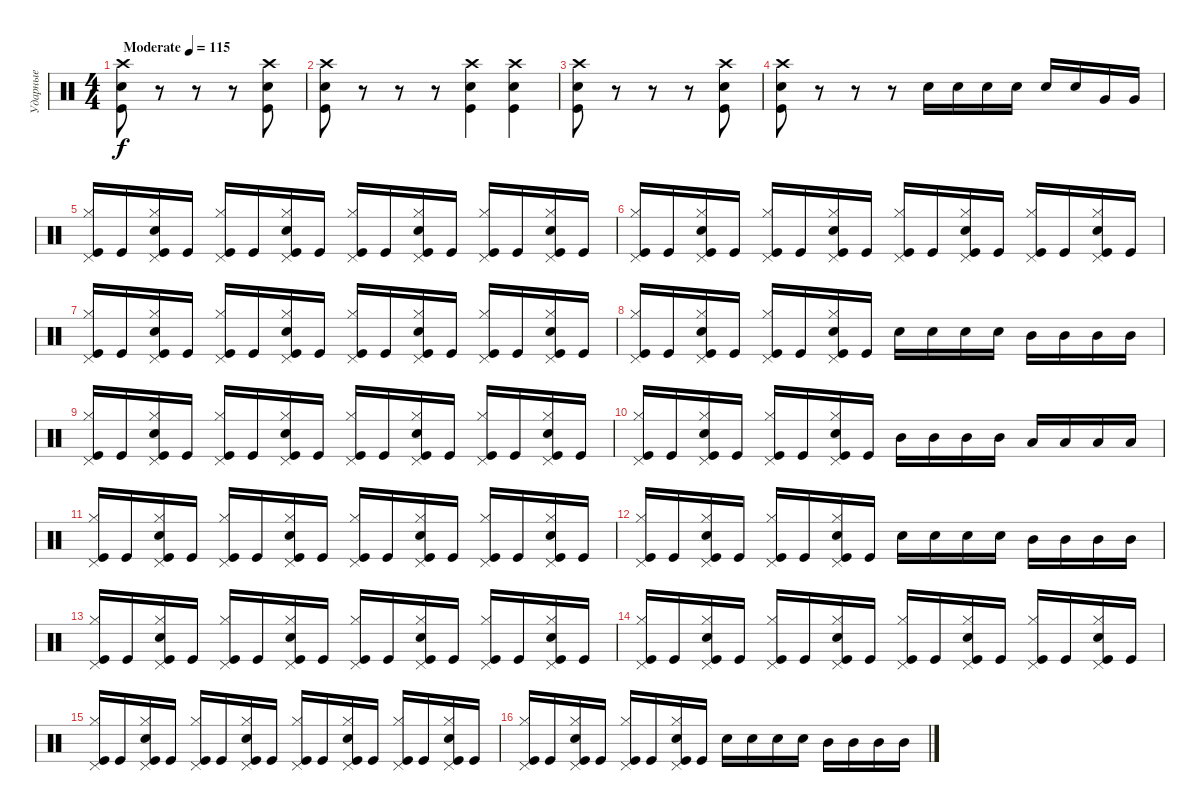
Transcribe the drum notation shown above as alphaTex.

\track ("Ударные" "Ударные") {instrument percussion}
\staff {score}
\articulation defaults
\ts (4 4)
\tempo (115 "Moderate")
\clef neutral
\ks c
("Kick (hit)" "Electric Snare (hit)" "Crash high (hit)").8{dy f} r.8 r.8 r.8 ("Kick (hit)" "Electric Snare (hit)" "Crash high (hit)").8 |
("Kick (hit)" "Electric Snare (hit)" "Crash high (hit)").8 r.8 r.8 r.8 ("Kick (hit)" "Electric Snare (hit)" "Crash high (hit)").4 ("Crash high (hit)" "Kick (hit)" "Electric Snare (hit)").4 |
("Kick (hit)" "Electric Snare (hit)" "Crash high (hit)").8 r.8 r.8 r.8 ("Kick (hit)" "Electric Snare (hit)" "Crash high (hit)").8 |
("Kick (hit)" "Electric Snare (hit)" "Crash high (hit)").8 r.8 r.8 r.8 "Electric Snare (hit)".16 "Electric Snare (hit)".16 "Electric Snare (hit)".16 "Electric Snare (hit)".16 "Electric Snare (hit)".16 "Electric Snare (hit)".16 "Very Low Tom (hit)".16 "Very Low Tom (hit)".16 |
("Kick (hit)" "Hi-Hat (closed)" "Pedal Hi-Hat (hit)").16 "Kick (hit)".16 ("Kick (hit)" "Electric Snare (hit)" "Hi-Hat (closed)" "Pedal Hi-Hat (hit)").16 "Kick (hit)".16 ("Kick (hit)" "Pedal Hi-Hat (hit)" "Hi-Hat (closed)").16 "Kick (hit)".16 ("Kick (hit)" "Electric Snare (hit)" "Hi-Hat (closed)" "Pedal Hi-Hat (hit)").16 "Kick (hit)".16 ("Kick (hit)" "Pedal Hi-Hat (hit)" "Hi-Hat (closed)").16 "Kick (hit)".16 ("Kick (hit)" "Electric Snare (hit)" "Hi-Hat (closed)" "Pedal Hi-Hat (hit)").16 "Kick (hit)".16 ("Kick (hit)" "Pedal Hi-Hat (hit)" "Hi-Hat (closed)").16 "Kick (hit)".16 ("Kick (hit)" "Electric Snare (hit)" "Hi-Hat (closed)" "Pedal Hi-Hat (hit)").16 "Kick (hit)".16 |
("Kick (hit)" "Hi-Hat (closed)" "Pedal Hi-Hat (hit)").16 "Kick (hit)".16 ("Kick (hit)" "Electric Snare (hit)" "Hi-Hat (closed)" "Pedal Hi-Hat (hit)").16 "Kick (hit)".16 ("Kick (hit)" "Pedal Hi-Hat (hit)" "Hi-Hat (closed)").16 "Kick (hit)".16 ("Kick (hit)" "Electric Snare (hit)" "Hi-Hat (closed)" "Pedal Hi-Hat (hit)").16 "Kick (hit)".16 ("Kick (hit)" "Pedal Hi-Hat (hit)" "Hi-Hat (closed)").16 "Kick (hit)".16 ("Kick (hit)" "Electric Snare (hit)" "Hi-Hat (closed)" "Pedal Hi-Hat (hit)").16 "Kick (hit)".16 ("Kick (hit)" "Pedal Hi-Hat (hit)" "Hi-Hat (closed)").16 "Kick (hit)".16 ("Kick (hit)" "Electric Snare (hit)" "Hi-Hat (closed)" "Pedal Hi-Hat (hit)").16 "Kick (hit)".16 |
("Kick (hit)" "Hi-Hat (closed)" "Pedal Hi-Hat (hit)").16 "Kick (hit)".16 ("Kick (hit)" "Electric Snare (hit)" "Hi-Hat (closed)" "Pedal Hi-Hat (hit)").16 "Kick (hit)".16 ("Kick (hit)" "Pedal Hi-Hat (hit)" "Hi-Hat (closed)").16 "Kick (hit)".16 ("Kick (hit)" "Electric Snare (hit)" "Hi-Hat (closed)" "Pedal Hi-Hat (hit)").16 "Kick (hit)".16 ("Kick (hit)" "Pedal Hi-Hat (hit)" "Hi-Hat (closed)").16 "Kick (hit)".16 ("Kick (hit)" "Electric Snare (hit)" "Hi-Hat (closed)" "Pedal Hi-Hat (hit)").16 "Kick (hit)".16 ("Kick (hit)" "Pedal Hi-Hat (hit)" "Hi-Hat (closed)").16 "Kick (hit)".16 ("Kick (hit)" "Electric Snare (hit)" "Hi-Hat (closed)" "Pedal Hi-Hat (hit)").16 "Kick (hit)".16 |
("Kick (hit)" "Hi-Hat (closed)" "Pedal Hi-Hat (hit)").16 "Kick (hit)".16 ("Kick (hit)" "Electric Snare (hit)" "Hi-Hat (closed)" "Pedal Hi-Hat (hit)").16 "Kick (hit)".16 ("Kick (hit)" "Pedal Hi-Hat (hit)" "Hi-Hat (closed)").16 "Kick (hit)".16 ("Kick (hit)" "Electric Snare (hit)" "Hi-Hat (closed)" "Pedal Hi-Hat (hit)").16 "Kick (hit)".16 "Electric Snare (hit)".16 "Electric Snare (hit)".16 "Electric Snare (hit)".16 "Electric Snare (hit)".16 "Mid Tom (hit)".16 "Mid Tom (hit)".16 "Mid Tom (hit)".16 "Mid Tom (hit)".16 |
("Kick (hit)" "Hi-Hat (closed)" "Pedal Hi-Hat (hit)").16 "Kick (hit)".16 ("Kick (hit)" "Electric Snare (hit)" "Hi-Hat (closed)" "Pedal Hi-Hat (hit)").16 "Kick (hit)".16 ("Kick (hit)" "Pedal Hi-Hat (hit)" "Hi-Hat (closed)").16 "Kick (hit)".16 ("Kick (hit)" "Electric Snare (hit)" "Hi-Hat (closed)" "Pedal Hi-Hat (hit)").16 "Kick (hit)".16 ("Kick (hit)" "Pedal Hi-Hat (hit)" "Hi-Hat (closed)").16 "Kick (hit)".16 ("Kick (hit)" "Electric Snare (hit)" "Hi-Hat (closed)" "Pedal Hi-Hat (hit)").16 "Kick (hit)".16 ("Kick (hit)" "Pedal Hi-Hat (hit)" "Hi-Hat (closed)").16 "Kick (hit)".16 ("Kick (hit)" "Electric Snare (hit)" "Hi-Hat (closed)" "Pedal Hi-Hat (hit)").16 "Kick (hit)".16 |
("Kick (hit)" "Hi-Hat (closed)" "Pedal Hi-Hat (hit)").16 "Kick (hit)".16 ("Kick (hit)" "Electric Snare (hit)" "Hi-Hat (closed)" "Pedal Hi-Hat (hit)").16 "Kick (hit)".16 ("Kick (hit)" "Pedal Hi-Hat (hit)" "Hi-Hat (closed)").16 "Kick (hit)".16 ("Kick (hit)" "Electric Snare (hit)" "Hi-Hat (closed)" "Pedal Hi-Hat (hit)").16 "Kick (hit)".16 "Mid Tom (hit)".16 "Mid Tom (hit)".16 "Mid Tom (hit)".16 "Mid Tom (hit)".16 "Low Tom (hit)".16 "Low Tom (hit)".16 "Low Tom (hit)".16 "Low Tom (hit)".16 |
("Kick (hit)" "Hi-Hat (closed)" "Pedal Hi-Hat (hit)").16 "Kick (hit)".16 ("Kick (hit)" "Electric Snare (hit)" "Hi-Hat (closed)" "Pedal Hi-Hat (hit)").16 "Kick (hit)".16 ("Kick (hit)" "Pedal Hi-Hat (hit)" "Hi-Hat (closed)").16 "Kick (hit)".16 ("Kick (hit)" "Electric Snare (hit)" "Hi-Hat (closed)" "Pedal Hi-Hat (hit)").16 "Kick (hit)".16 ("Kick (hit)" "Pedal Hi-Hat (hit)" "Hi-Hat (closed)").16 "Kick (hit)".16 ("Kick (hit)" "Electric Snare (hit)" "Hi-Hat (closed)" "Pedal Hi-Hat (hit)").16 "Kick (hit)".16 ("Kick (hit)" "Pedal Hi-Hat (hit)" "Hi-Hat (closed)").16 "Kick (hit)".16 ("Kick (hit)" "Electric Snare (hit)" "Hi-Hat (closed)" "Pedal Hi-Hat (hit)").16 "Kick (hit)".16 |
("Kick (hit)" "Hi-Hat (closed)" "Pedal Hi-Hat (hit)").16 "Kick (hit)".16 ("Kick (hit)" "Electric Snare (hit)" "Hi-Hat (closed)" "Pedal Hi-Hat (hit)").16 "Kick (hit)".16 ("Kick (hit)" "Pedal Hi-Hat (hit)" "Hi-Hat (closed)").16 "Kick (hit)".16 ("Kick (hit)" "Electric Snare (hit)" "Hi-Hat (closed)" "Pedal Hi-Hat (hit)").16 "Kick (hit)".16 "Electric Snare (hit)".16 "Electric Snare (hit)".16 "Electric Snare (hit)".16 "Electric Snare (hit)".16 "Mid Tom (hit)".16 "Mid Tom (hit)".16 "Mid Tom (hit)".16 "Mid Tom (hit)".16 |
("Kick (hit)" "Hi-Hat (closed)" "Pedal Hi-Hat (hit)").16 "Kick (hit)".16 ("Kick (hit)" "Electric Snare (hit)" "Hi-Hat (closed)" "Pedal Hi-Hat (hit)").16 "Kick (hit)".16 ("Kick (hit)" "Pedal Hi-Hat (hit)" "Hi-Hat (closed)").16 "Kick (hit)".16 ("Kick (hit)" "Electric Snare (hit)" "Hi-Hat (closed)" "Pedal Hi-Hat (hit)").16 "Kick (hit)".16 ("Kick (hit)" "Pedal Hi-Hat (hit)" "Hi-Hat (closed)").16 "Kick (hit)".16 ("Kick (hit)" "Electric Snare (hit)" "Hi-Hat (closed)" "Pedal Hi-Hat (hit)").16 "Kick (hit)".16 ("Kick (hit)" "Pedal Hi-Hat (hit)" "Hi-Hat (closed)").16 "Kick (hit)".16 ("Kick (hit)" "Electric Snare (hit)" "Hi-Hat (closed)" "Pedal Hi-Hat (hit)").16 "Kick (hit)".16 |
("Kick (hit)" "Hi-Hat (closed)" "Pedal Hi-Hat (hit)").16 "Kick (hit)".16 ("Kick (hit)" "Electric Snare (hit)" "Hi-Hat (closed)" "Pedal Hi-Hat (hit)").16 "Kick (hit)".16 ("Kick (hit)" "Pedal Hi-Hat (hit)" "Hi-Hat (closed)").16 "Kick (hit)".16 ("Kick (hit)" "Electric Snare (hit)" "Hi-Hat (closed)" "Pedal Hi-Hat (hit)").16 "Kick (hit)".16 ("Kick (hit)" "Pedal Hi-Hat (hit)" "Hi-Hat (closed)").16 "Kick (hit)".16 ("Kick (hit)" "Electric Snare (hit)" "Hi-Hat (closed)" "Pedal Hi-Hat (hit)").16 "Kick (hit)".16 ("Kick (hit)" "Pedal Hi-Hat (hit)" "Hi-Hat (closed)").16 "Kick (hit)".16 ("Kick (hit)" "Electric Snare (hit)" "Hi-Hat (closed)" "Pedal Hi-Hat (hit)").16 "Kick (hit)".16 |
("Kick (hit)" "Hi-Hat (closed)" "Pedal Hi-Hat (hit)").16 "Kick (hit)".16 ("Kick (hit)" "Electric Snare (hit)" "Hi-Hat (closed)" "Pedal Hi-Hat (hit)").16 "Kick (hit)".16 ("Kick (hit)" "Pedal Hi-Hat (hit)" "Hi-Hat (closed)").16 "Kick (hit)".16 ("Kick (hit)" "Electric Snare (hit)" "Hi-Hat (closed)" "Pedal Hi-Hat (hit)").16 "Kick (hit)".16 ("Kick (hit)" "Pedal Hi-Hat (hit)" "Hi-Hat (closed)").16 "Kick (hit)".16 ("Kick (hit)" "Electric Snare (hit)" "Hi-Hat (closed)" "Pedal Hi-Hat (hit)").16 "Kick (hit)".16 ("Kick (hit)" "Pedal Hi-Hat (hit)" "Hi-Hat (closed)").16 "Kick (hit)".16 ("Kick (hit)" "Electric Snare (hit)" "Hi-Hat (closed)" "Pedal Hi-Hat (hit)").16 "Kick (hit)".16 |
("Kick (hit)" "Hi-Hat (closed)" "Pedal Hi-Hat (hit)").16 "Kick (hit)".16 ("Kick (hit)" "Electric Snare (hit)" "Hi-Hat (closed)" "Pedal Hi-Hat (hit)").16 "Kick (hit)".16 ("Kick (hit)" "Pedal Hi-Hat (hit)" "Hi-Hat (closed)").16 "Kick (hit)".16 ("Kick (hit)" "Electric Snare (hit)" "Hi-Hat (closed)" "Pedal Hi-Hat (hit)").16 "Kick (hit)".16 "Electric Snare (hit)".16 "Electric Snare (hit)".16 "Electric Snare (hit)".16 "Electric Snare (hit)".16 "Mid Tom (hit)".16 "Mid Tom (hit)".16 "Mid Tom (hit)".16 "Mid Tom (hit)".16
